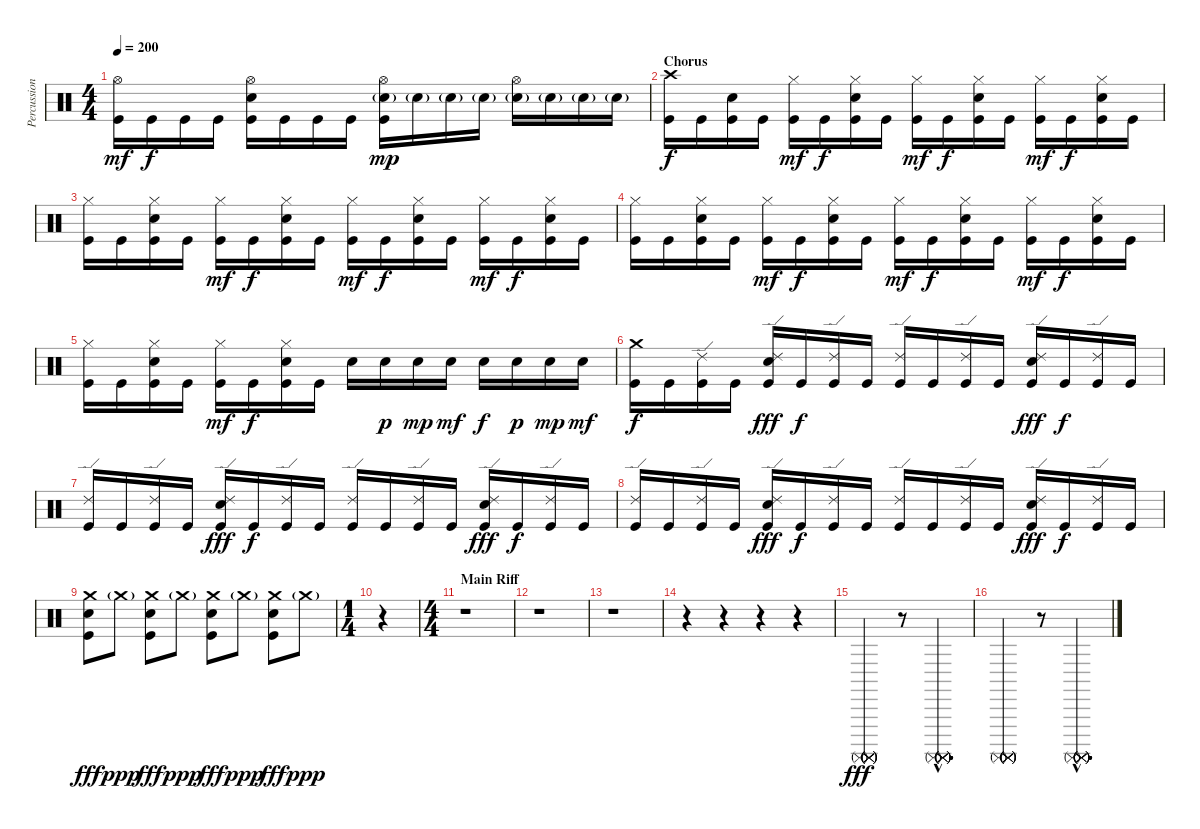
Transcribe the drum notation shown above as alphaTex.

\track ("Percussion" "Percussion") {instrument percussion}
\staff {score}
\articulation defaults
\ts (4 4)
\tempo 200
\clef neutral
\ks c
("Hi-Hat (open)" "Kick (hit)").16{dy mf} "Kick (hit)".16{dy f} "Kick (hit)".16 "Kick (hit)".16 ("Hi-Hat (open)" "Electric Snare (hit)" "Kick (hit)").16 "Kick (hit)".16 "Kick (hit)".16 "Kick (hit)".16 ("Hi-Hat (open)" "Electric Snare (hit)"{g} "Kick (hit)").16{dy mp} "Electric Snare (hit)"{g}.16 "Electric Snare (hit)"{g}.16 "Electric Snare (hit)"{g}.16 ("Hi-Hat (open)" "Electric Snare (hit)"{g}).16 "Electric Snare (hit)"{g}.16 "Electric Snare (hit)"{g}.16 "Electric Snare (hit)"{g}.16 |
\section ("" "Chorus")
("Crash high (hit)" "Kick (hit)").16{dy f} "Kick (hit)".16 ("Electric Snare (hit)" "Kick (hit)").16 "Kick (hit)".16 ("Hi-Hat (closed)" "Kick (hit)").16{dy mf} "Kick (hit)".16{dy f} ("Hi-Hat (closed)" "Electric Snare (hit)" "Kick (hit)").16 "Kick (hit)".16 ("Hi-Hat (closed)" "Kick (hit)").16{dy mf} "Kick (hit)".16{dy f} ("Hi-Hat (closed)" "Electric Snare (hit)" "Kick (hit)").16 "Kick (hit)".16 ("Hi-Hat (closed)" "Kick (hit)").16{dy mf} "Kick (hit)".16{dy f} ("Hi-Hat (closed)" "Electric Snare (hit)" "Kick (hit)").16 "Kick (hit)".16 |
("Hi-Hat (closed)" "Kick (hit)").16 "Kick (hit)".16 ("Hi-Hat (closed)" "Electric Snare (hit)" "Kick (hit)").16 "Kick (hit)".16 ("Hi-Hat (closed)" "Kick (hit)").16{dy mf} "Kick (hit)".16{dy f} ("Hi-Hat (closed)" "Electric Snare (hit)" "Kick (hit)").16 "Kick (hit)".16 ("Hi-Hat (closed)" "Kick (hit)").16{dy mf} "Kick (hit)".16{dy f} ("Hi-Hat (closed)" "Electric Snare (hit)" "Kick (hit)").16 "Kick (hit)".16 ("Hi-Hat (closed)" "Kick (hit)").16{dy mf} "Kick (hit)".16{dy f} ("Hi-Hat (closed)" "Electric Snare (hit)" "Kick (hit)").16 "Kick (hit)".16 |
("Hi-Hat (closed)" "Kick (hit)").16 "Kick (hit)".16 ("Hi-Hat (closed)" "Electric Snare (hit)" "Kick (hit)").16 "Kick (hit)".16 ("Hi-Hat (closed)" "Kick (hit)").16{dy mf} "Kick (hit)".16{dy f} ("Hi-Hat (closed)" "Electric Snare (hit)" "Kick (hit)").16 "Kick (hit)".16 ("Hi-Hat (closed)" "Kick (hit)").16{dy mf} "Kick (hit)".16{dy f} ("Hi-Hat (closed)" "Electric Snare (hit)" "Kick (hit)").16 "Kick (hit)".16 ("Hi-Hat (closed)" "Kick (hit)").16{dy mf} "Kick (hit)".16{dy f} ("Hi-Hat (closed)" "Electric Snare (hit)" "Kick (hit)").16 "Kick (hit)".16 |
("Hi-Hat (closed)" "Kick (hit)").16 "Kick (hit)".16 ("Hi-Hat (closed)" "Electric Snare (hit)" "Kick (hit)").16 "Kick (hit)".16 ("Hi-Hat (closed)" "Kick (hit)").16{dy mf} "Kick (hit)".16{dy f} ("Hi-Hat (closed)" "Electric Snare (hit)" "Kick (hit)").16 "Kick (hit)".16 "Electric Snare (hit)".16 "Electric Snare (hit)".16{dy p} "Electric Snare (hit)".16{dy mp} "Electric Snare (hit)".16{dy mf} "Electric Snare (hit)".16{dy f} "Electric Snare (hit)".16{dy p} "Electric Snare (hit)".16{dy mp} "Electric Snare (hit)".16{dy mf} |
("Crash medium (hit)" "Kick (hit)").16{dy f} "Kick (hit)".16 ("Ride (edge) 2" "Kick (hit)").16 "Kick (hit)".16 ("Ride (edge) 2" "Electric Snare (hit)" "Kick (hit)").16{dy fff} "Kick (hit)".16{dy f} ("Ride (edge) 2" "Kick (hit)").16 "Kick (hit)".16 ("Ride (edge) 2" "Kick (hit)").16 "Kick (hit)".16 ("Ride (edge) 2" "Kick (hit)").16 "Kick (hit)".16 ("Ride (edge) 2" "Electric Snare (hit)" "Kick (hit)").16{dy fff} "Kick (hit)".16{dy f} ("Ride (edge) 2" "Kick (hit)").16 "Kick (hit)".16 |
("Ride (edge) 2" "Kick (hit)").16 "Kick (hit)".16 ("Ride (edge) 2" "Kick (hit)").16 "Kick (hit)".16 ("Ride (edge) 2" "Electric Snare (hit)" "Kick (hit)").16{dy fff} "Kick (hit)".16{dy f} ("Ride (edge) 2" "Kick (hit)").16 "Kick (hit)".16 ("Ride (edge) 2" "Kick (hit)").16 "Kick (hit)".16 ("Ride (edge) 2" "Kick (hit)").16 "Kick (hit)".16 ("Ride (edge) 2" "Electric Snare (hit)" "Kick (hit)").16{dy fff} "Kick (hit)".16{dy f} ("Ride (edge) 2" "Kick (hit)").16 "Kick (hit)".16 |
("Ride (edge) 2" "Kick (hit)").16 "Kick (hit)".16 ("Ride (edge) 2" "Kick (hit)").16 "Kick (hit)".16 ("Ride (edge) 2" "Electric Snare (hit)" "Kick (hit)").16{dy fff} "Kick (hit)".16{dy f} ("Ride (edge) 2" "Kick (hit)").16 "Kick (hit)".16 ("Ride (edge) 2" "Kick (hit)").16 "Kick (hit)".16 ("Ride (edge) 2" "Kick (hit)").16 "Kick (hit)".16 ("Ride (edge) 2" "Electric Snare (hit)" "Kick (hit)").16{dy fff} "Kick (hit)".16{dy f} ("Ride (edge) 2" "Kick (hit)").16 "Kick (hit)".16 |
("Crash medium (hit)" "Electric Snare (hit)" "Kick (hit)").8{dy fff} "Crash medium (hit)"{g}.8{dy ppp} ("Crash medium (hit)" "Electric Snare (hit)" "Kick (hit)").8{dy fff} "Crash medium (hit)"{g}.8{dy ppp} ("Crash medium (hit)" "Electric Snare (hit)" "Kick (hit)").8{dy fff} "Crash medium (hit)"{g}.8{dy ppp} ("Crash medium (hit)" "Electric Snare (hit)" "Kick (hit)").8{dy fff} "Crash medium (hit)"{g}.8{dy ppp} |
\ts (1 4)
r.4 |
\ts (4 4)
\section ("" "Main Riff")
r.1 |
r.1 |
r.1 |
r.4 r.4 r.4 r.4 |
("Surdo (mute)" "Surdo (mute)" "Surdo (mute)" "Surdo (mute)" "Surdo (mute)" "Surdo (mute)").2{dy fff} r.8 ("Surdo (mute)"{hac} "Surdo (mute)"{hac} "Surdo (mute)"{hac} "Surdo (mute)"{hac} "Surdo (mute)"{hac} "Surdo (mute)"{hac}).4{d} |
("Surdo (mute)" "Surdo (mute)" "Surdo (mute)" "Surdo (mute)" "Surdo (mute)" "Surdo (mute)").2 r.8 ("Surdo (mute)"{hac} "Surdo (mute)"{hac} "Surdo (mute)"{hac} "Surdo (mute)"{hac} "Surdo (mute)"{hac} "Surdo (mute)"{hac}).4{d}
